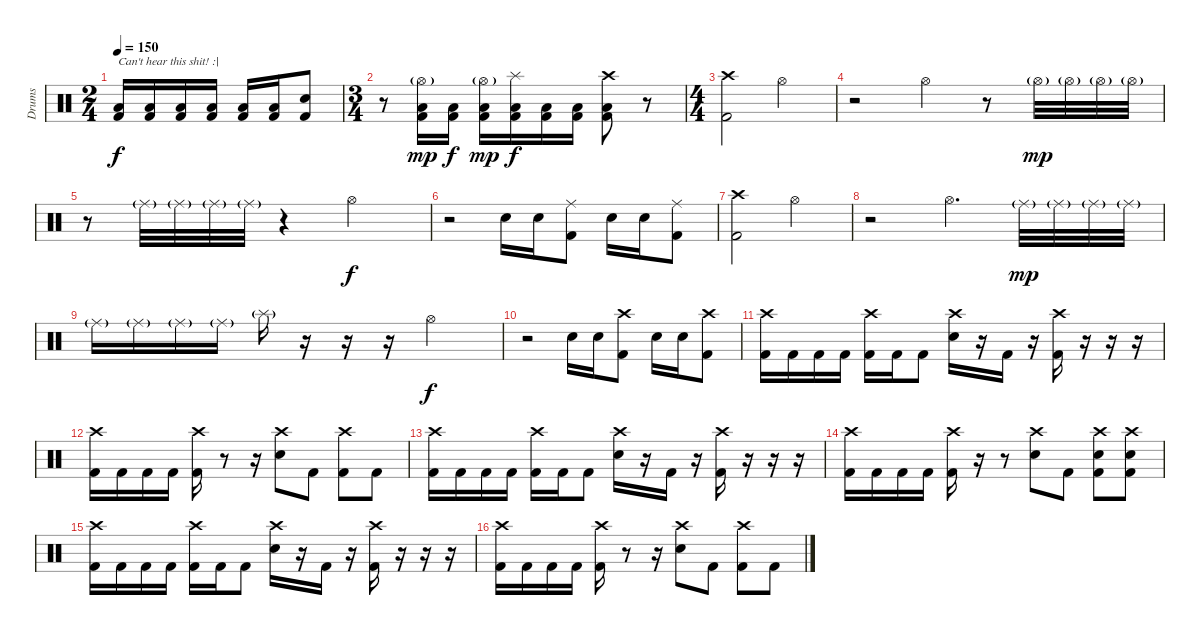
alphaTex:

\track ("Drums" "Drums") {instrument percussion}
\staff {score}
\articulation defaults
\ts (2 4)
\tempo 150
\clef neutral
\ks c
("Low Floor Tom (hit)" "Kick (hit) 2").16{txt "Can't hear this shit! :|" dy f} ("Low Floor Tom (hit)" "Kick (hit) 2").16 ("Low Floor Tom (hit)" "Kick (hit) 2").16 ("Low Floor Tom (hit)" "Kick (hit) 2").16 ("Low Floor Tom (hit)" "Kick (hit) 2").16 ("Low Floor Tom (hit)" "Kick (hit) 2").16 ("Electric Snare (hit)" "Kick (hit) 2").8 |
\ts (3 4)
r.8 ("Hi-Hat (open)"{g} "Low Floor Tom (hit)" "Kick (hit) 2").16{dy mp} ("Low Floor Tom (hit)" "Kick (hit) 2").16{dy f} ("Hi-Hat (open)"{g} "Low Floor Tom (hit)" "Kick (hit) 2").16{dy mp} ("Splash (hit)" "Low Floor Tom (hit)" "Kick (hit) 2").16{dy f} ("Low Floor Tom (hit)" "Kick (hit) 2").16 ("Low Floor Tom (hit)" "Kick (hit) 2").16 ("Crash high (hit)" "Low Floor Tom (hit)" "Kick (hit) 2").8 r.8 |
\ts (4 4)
("Crash high (hit)" "Kick (hit) 2").2 "Hi-Hat (open)".2 |
r.2 "Hi-Hat (open)".4 r.8 "Hi-Hat (open)"{g}.32{dy mp} "Hi-Hat (open)"{g}.32 "Hi-Hat (open)"{g}.32 "Hi-Hat (open)"{g}.32 |
r.8 "Ride (middle)"{g}.32 "Ride (middle)"{g}.32 "Ride (middle)"{g}.32 "Ride (middle)"{g}.32 r.4 "Hi-Hat (open)".2{dy f} |
r.2 "Electric Snare (hit)".16 "Electric Snare (hit)".16 ("Ride (middle)" "Kick (hit) 2").8 "Electric Snare (hit)".16 "Electric Snare (hit)".16 ("Ride (middle)" "Kick (hit) 2").8 |
("Crash high (hit)" "Kick (hit) 2").2 "Hi-Hat (open)".2 |
r.2 "Hi-Hat (open)".4{d} "Ride (middle)"{g}.32{dy mp} "Ride (middle)"{g}.32 "Ride (middle)"{g}.32 "Ride (middle)"{g}.32 |
"Ride (middle)"{g}.16 "Ride (middle)"{g}.16 "Ride (middle)"{g}.16 "Ride (middle)"{g}.16 "Splash (hit)"{g}.16 r.16 r.16 r.16 "Hi-Hat (open)".2{dy f} |
r.2 "Electric Snare (hit)".16 "Electric Snare (hit)".16 ("Crash high (hit)" "Kick (hit) 2").8 "Electric Snare (hit)".16 "Electric Snare (hit)".16 ("Crash high (hit)" "Kick (hit) 2").8 |
("Crash high (hit)" "Kick (hit) 2").16 "Kick (hit) 2".16 "Kick (hit) 2".16 "Kick (hit) 2".16 ("Crash high (hit)" "Kick (hit) 2").16 "Kick (hit) 2".16 "Kick (hit) 2".8 ("Crash high (hit)" "Electric Snare (hit)").16 r.16 "Kick (hit) 2".16 r.16 ("Crash high (hit)" "Kick (hit) 2").16 r.16 r.16 r.16 |
("Crash high (hit)" "Kick (hit) 2").16 "Kick (hit) 2".16 "Kick (hit) 2".16 "Kick (hit) 2".16 ("Crash high (hit)" "Kick (hit) 2").16 r.8 r.16 ("Crash high (hit)" "Electric Snare (hit)").8 "Kick (hit) 2".8 ("Crash high (hit)" "Kick (hit) 2").8 "Kick (hit) 2".8 |
("Crash high (hit)" "Kick (hit) 2").16 "Kick (hit) 2".16 "Kick (hit) 2".16 "Kick (hit) 2".16 ("Crash high (hit)" "Kick (hit) 2").16 "Kick (hit) 2".16 "Kick (hit) 2".8 ("Crash high (hit)" "Electric Snare (hit)").16 r.16 "Kick (hit) 2".16 r.16 ("Crash high (hit)" "Kick (hit) 2").16 r.16 r.16 r.16 |
("Crash high (hit)" "Kick (hit) 2").16 "Kick (hit) 2".16 "Kick (hit) 2".16 "Kick (hit) 2".16 ("Crash high (hit)" "Kick (hit) 2").16 r.16 r.8 ("Crash high (hit)" "Electric Snare (hit)").8 "Kick (hit) 2".8 ("Crash high (hit)" "Electric Snare (hit)" "Kick (hit) 2").8 ("Crash high (hit)" "Electric Snare (hit)" "Kick (hit) 2").8 |
("Crash high (hit)" "Kick (hit) 2").16 "Kick (hit) 2".16 "Kick (hit) 2".16 "Kick (hit) 2".16 ("Crash high (hit)" "Kick (hit) 2").16 "Kick (hit) 2".16 "Kick (hit) 2".8 ("Crash high (hit)" "Electric Snare (hit)").16 r.16 "Kick (hit) 2".16 r.16 ("Crash high (hit)" "Kick (hit) 2").16 r.16 r.16 r.16 |
("Crash high (hit)" "Kick (hit) 2").16 "Kick (hit) 2".16 "Kick (hit) 2".16 "Kick (hit) 2".16 ("Crash high (hit)" "Kick (hit) 2").16 r.8 r.16 ("Crash high (hit)" "Electric Snare (hit)").8 "Kick (hit) 2".8 ("Crash high (hit)" "Kick (hit) 2").8 "Kick (hit) 2".8
